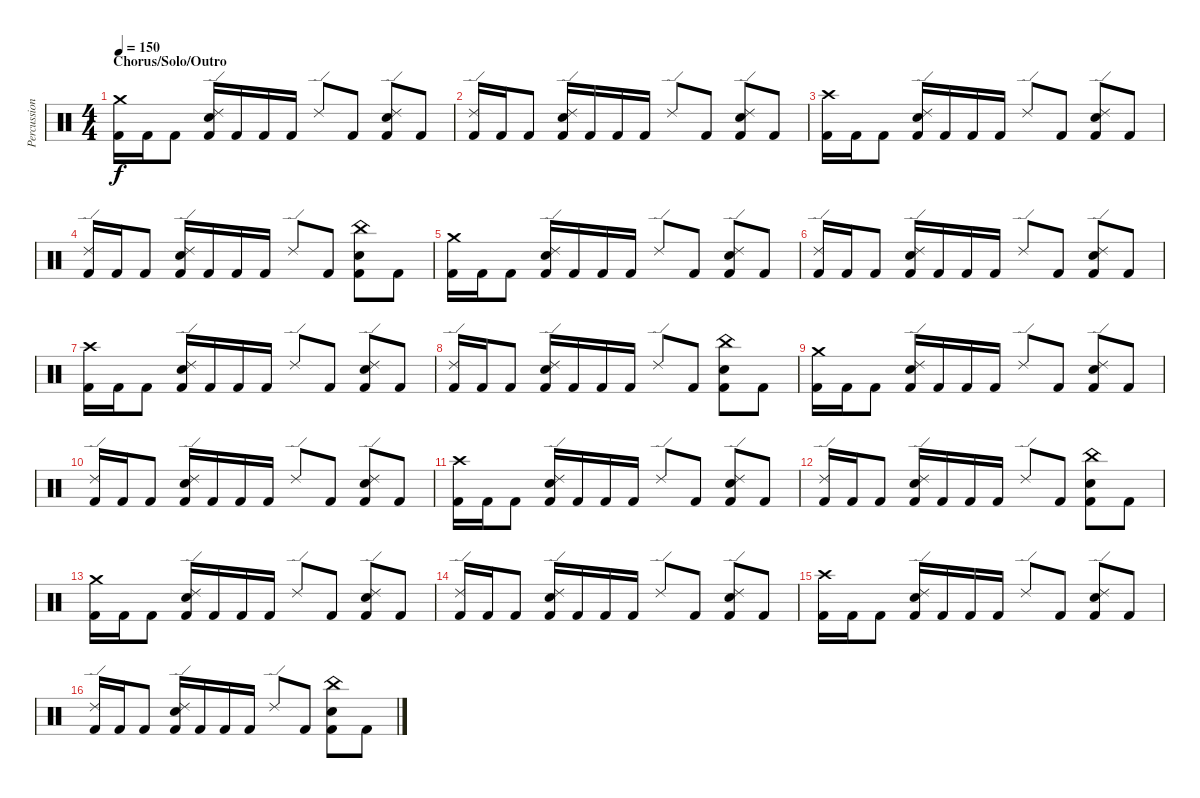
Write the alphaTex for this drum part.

\track ("Percussion" "Percussion") {instrument percussion}
\staff {score}
\articulation defaults
\ts (4 4)
\section ("" "Chorus/Solo/Outro")
\tempo 150
\clef neutral
\ks c
("Crash medium (hit)" "Kick (hit) 2").16{dy f} "Kick (hit) 2".16 "Kick (hit) 2".8 ("Ride (edge) 2" "Electric Snare (hit)" "Kick (hit) 2").16 "Kick (hit) 2".16 "Kick (hit) 2".16 "Kick (hit) 2".16 "Ride (edge) 2".8 "Kick (hit) 2".8 ("Ride (edge) 2" "Electric Snare (hit)" "Kick (hit) 2").8 "Kick (hit) 2".8 |
("Ride (edge) 2" "Kick (hit) 2").16 "Kick (hit) 2".16 "Kick (hit) 2".8 ("Ride (edge) 2" "Electric Snare (hit)" "Kick (hit) 2").16 "Kick (hit) 2".16 "Kick (hit) 2".16 "Kick (hit) 2".16 "Ride (edge) 2".8 "Kick (hit) 2".8 ("Ride (edge) 2" "Electric Snare (hit)" "Kick (hit) 2").8 "Kick (hit) 2".8 |
("Crash high (hit)" "Kick (hit) 2").16 "Kick (hit) 2".16 "Kick (hit) 2".8 ("Ride (edge) 2" "Electric Snare (hit)" "Kick (hit) 2").16 "Kick (hit) 2".16 "Kick (hit) 2".16 "Kick (hit) 2".16 "Ride (edge) 2".8 "Kick (hit) 2".8 ("Ride (edge) 2" "Electric Snare (hit)" "Kick (hit) 2").8 "Kick (hit) 2".8 |
("Ride (edge) 2" "Kick (hit) 2").16 "Kick (hit) 2".16 "Kick (hit) 2".8 ("Ride (edge) 2" "Electric Snare (hit)" "Kick (hit) 2").16 "Kick (hit) 2".16 "Kick (hit) 2".16 "Kick (hit) 2".16 "Ride (edge) 2".8 "Kick (hit) 2".8 ("China (hit)" "Electric Snare (hit)" "Kick (hit) 2").8 "Kick (hit) 2".8 |
("Crash medium (hit)" "Kick (hit) 2").16 "Kick (hit) 2".16 "Kick (hit) 2".8 ("Ride (edge) 2" "Electric Snare (hit)" "Kick (hit) 2").16 "Kick (hit) 2".16 "Kick (hit) 2".16 "Kick (hit) 2".16 "Ride (edge) 2".8 "Kick (hit) 2".8 ("Ride (edge) 2" "Electric Snare (hit)" "Kick (hit) 2").8 "Kick (hit) 2".8 |
("Ride (edge) 2" "Kick (hit) 2").16 "Kick (hit) 2".16 "Kick (hit) 2".8 ("Ride (edge) 2" "Electric Snare (hit)" "Kick (hit) 2").16 "Kick (hit) 2".16 "Kick (hit) 2".16 "Kick (hit) 2".16 "Ride (edge) 2".8 "Kick (hit) 2".8 ("Ride (edge) 2" "Electric Snare (hit)" "Kick (hit) 2").8 "Kick (hit) 2".8 |
("Crash high (hit)" "Kick (hit) 2").16 "Kick (hit) 2".16 "Kick (hit) 2".8 ("Ride (edge) 2" "Electric Snare (hit)" "Kick (hit) 2").16 "Kick (hit) 2".16 "Kick (hit) 2".16 "Kick (hit) 2".16 "Ride (edge) 2".8 "Kick (hit) 2".8 ("Ride (edge) 2" "Electric Snare (hit)" "Kick (hit) 2").8 "Kick (hit) 2".8 |
("Ride (edge) 2" "Kick (hit) 2").16 "Kick (hit) 2".16 "Kick (hit) 2".8 ("Ride (edge) 2" "Electric Snare (hit)" "Kick (hit) 2").16 "Kick (hit) 2".16 "Kick (hit) 2".16 "Kick (hit) 2".16 "Ride (edge) 2".8 "Kick (hit) 2".8 ("China (hit)" "Electric Snare (hit)" "Kick (hit) 2").8 "Kick (hit) 2".8 |
("Crash medium (hit)" "Kick (hit) 2").16 "Kick (hit) 2".16 "Kick (hit) 2".8 ("Ride (edge) 2" "Electric Snare (hit)" "Kick (hit) 2").16 "Kick (hit) 2".16 "Kick (hit) 2".16 "Kick (hit) 2".16 "Ride (edge) 2".8 "Kick (hit) 2".8 ("Ride (edge) 2" "Electric Snare (hit)" "Kick (hit) 2").8 "Kick (hit) 2".8 |
("Ride (edge) 2" "Kick (hit) 2").16 "Kick (hit) 2".16 "Kick (hit) 2".8 ("Ride (edge) 2" "Electric Snare (hit)" "Kick (hit) 2").16 "Kick (hit) 2".16 "Kick (hit) 2".16 "Kick (hit) 2".16 "Ride (edge) 2".8 "Kick (hit) 2".8 ("Ride (edge) 2" "Electric Snare (hit)" "Kick (hit) 2").8 "Kick (hit) 2".8 |
("Crash high (hit)" "Kick (hit) 2").16 "Kick (hit) 2".16 "Kick (hit) 2".8 ("Ride (edge) 2" "Electric Snare (hit)" "Kick (hit) 2").16 "Kick (hit) 2".16 "Kick (hit) 2".16 "Kick (hit) 2".16 "Ride (edge) 2".8 "Kick (hit) 2".8 ("Ride (edge) 2" "Electric Snare (hit)" "Kick (hit) 2").8 "Kick (hit) 2".8 |
("Ride (edge) 2" "Kick (hit) 2").16 "Kick (hit) 2".16 "Kick (hit) 2".8 ("Ride (edge) 2" "Electric Snare (hit)" "Kick (hit) 2").16 "Kick (hit) 2".16 "Kick (hit) 2".16 "Kick (hit) 2".16 "Ride (edge) 2".8 "Kick (hit) 2".8 ("China (hit)" "Electric Snare (hit)" "Kick (hit) 2").8 "Kick (hit) 2".8 |
("Crash medium (hit)" "Kick (hit) 2").16 "Kick (hit) 2".16 "Kick (hit) 2".8 ("Ride (edge) 2" "Electric Snare (hit)" "Kick (hit) 2").16 "Kick (hit) 2".16 "Kick (hit) 2".16 "Kick (hit) 2".16 "Ride (edge) 2".8 "Kick (hit) 2".8 ("Ride (edge) 2" "Electric Snare (hit)" "Kick (hit) 2").8 "Kick (hit) 2".8 |
("Ride (edge) 2" "Kick (hit) 2").16 "Kick (hit) 2".16 "Kick (hit) 2".8 ("Ride (edge) 2" "Electric Snare (hit)" "Kick (hit) 2").16 "Kick (hit) 2".16 "Kick (hit) 2".16 "Kick (hit) 2".16 "Ride (edge) 2".8 "Kick (hit) 2".8 ("Ride (edge) 2" "Electric Snare (hit)" "Kick (hit) 2").8 "Kick (hit) 2".8 |
("Crash high (hit)" "Kick (hit) 2").16 "Kick (hit) 2".16 "Kick (hit) 2".8 ("Ride (edge) 2" "Electric Snare (hit)" "Kick (hit) 2").16 "Kick (hit) 2".16 "Kick (hit) 2".16 "Kick (hit) 2".16 "Ride (edge) 2".8 "Kick (hit) 2".8 ("Ride (edge) 2" "Electric Snare (hit)" "Kick (hit) 2").8 "Kick (hit) 2".8 |
("Ride (edge) 2" "Kick (hit) 2").16 "Kick (hit) 2".16 "Kick (hit) 2".8 ("Ride (edge) 2" "Electric Snare (hit)" "Kick (hit) 2").16 "Kick (hit) 2".16 "Kick (hit) 2".16 "Kick (hit) 2".16 "Ride (edge) 2".8 "Kick (hit) 2".8 ("China (hit)" "Electric Snare (hit)" "Kick (hit) 2").8 "Kick (hit) 2".8
